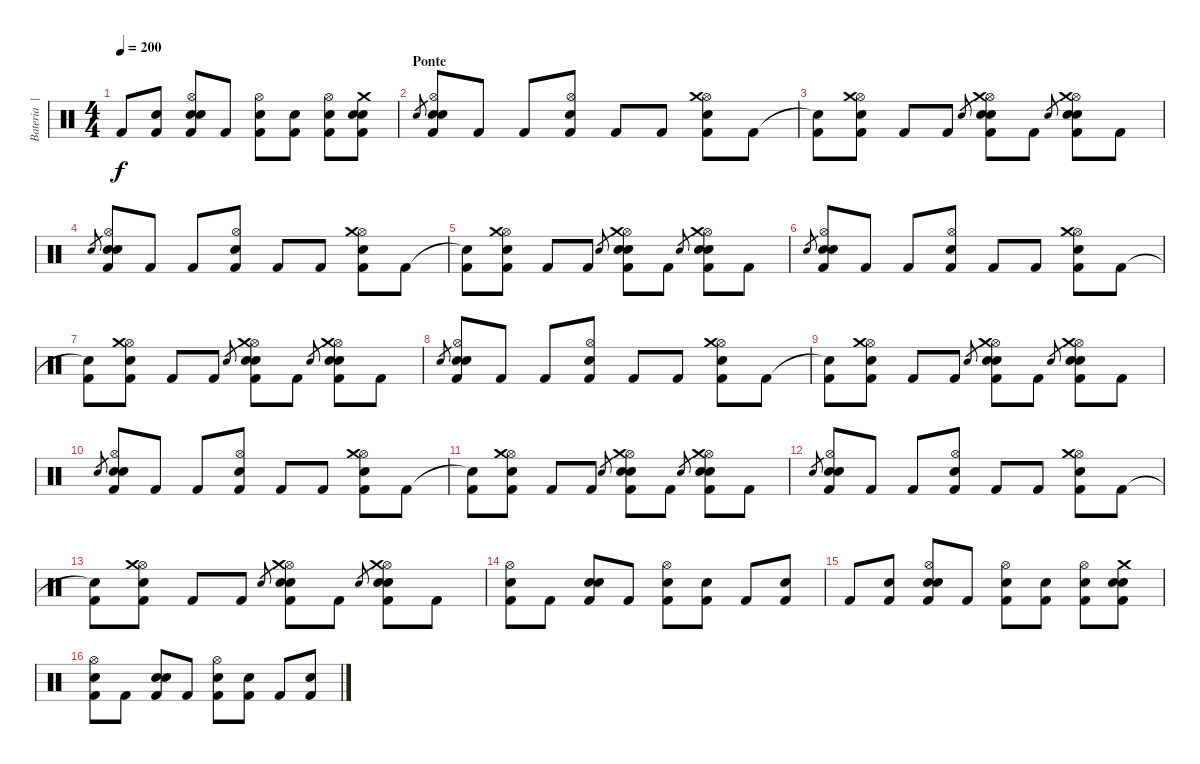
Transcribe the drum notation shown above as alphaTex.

\track ("Bateria  | Nô" "Bateria  |") {instrument percussion}
\staff {score}
\articulation defaults
\ts (4 4)
\tempo 200
\clef neutral
\ks c "Kick (hit) 2".8{dy f}
("Electric Snare (hit)" "Kick (hit) 2").8 ("Hi-Hat (open)" "Electric Snare (hit)" "Snare (hit) 2" "Kick (hit) 2").8 "Kick (hit) 2".8 ("Hi-Hat (open)" "Electric Snare (hit)" "Kick (hit) 2").8 ("Electric Snare (hit)" "Kick (hit) 2").8 ("Hi-Hat (open)" "Electric Snare (hit)" "Kick (hit) 2").8 ("Crash medium (hit)" "Snare (hit) 2" "Electric Snare (hit)" "Kick (hit) 2").8 |
\section ("" "Ponte")
"Electric Snare (hit)".8{gr} ("Hi-Hat (open)" "Snare (hit) 2" "Electric Snare (hit)" "Kick (hit) 2").8 "Kick (hit) 2".8 "Kick (hit) 2".8 ("Hi-Hat (open)" "Snare (hit) 2" "Kick (hit) 2").8 "Kick (hit) 2".8 "Kick (hit) 2".8 ("Hi-Hat (open)" "Crash medium (hit)" "Snare (hit) 2" "Kick (hit) 2").8 "Kick (hit) 2".8 |
("Snare (hit)"{t} "Kick (hit) 2").8 ("Hi-Hat (open)" "Crash medium (hit)" "Snare (hit) 2" "Kick (hit) 2").8 "Kick (hit) 2".8 "Kick (hit) 2".8 "Electric Snare (hit)".8{gr} ("Hi-Hat (open)" "Crash medium (hit)" "Snare (hit) 2" "Electric Snare (hit)" "Kick (hit) 2").8 "Kick (hit) 2".8 "Electric Snare (hit)".8{gr} ("Hi-Hat (open)" "Crash medium (hit)" "Snare (hit) 2" "Electric Snare (hit)" "Kick (hit) 2").8 "Kick (hit) 2".8 |
"Electric Snare (hit)".8{gr} ("Hi-Hat (open)" "Snare (hit) 2" "Electric Snare (hit)" "Kick (hit) 2").8 "Kick (hit) 2".8 "Kick (hit) 2".8 ("Hi-Hat (open)" "Snare (hit) 2" "Kick (hit) 2").8 "Kick (hit) 2".8 "Kick (hit) 2".8 ("Hi-Hat (open)" "Crash medium (hit)" "Snare (hit) 2" "Kick (hit) 2").8 "Kick (hit) 2".8 |
("Snare (hit)"{t} "Kick (hit) 2").8 ("Hi-Hat (open)" "Crash medium (hit)" "Snare (hit) 2" "Kick (hit) 2").8 "Kick (hit) 2".8 "Kick (hit) 2".8 "Electric Snare (hit)".8{gr} ("Hi-Hat (open)" "Crash medium (hit)" "Snare (hit) 2" "Electric Snare (hit)" "Kick (hit) 2").8 "Kick (hit) 2".8 "Electric Snare (hit)".8{gr} ("Hi-Hat (open)" "Crash medium (hit)" "Snare (hit) 2" "Electric Snare (hit)" "Kick (hit) 2").8 "Kick (hit) 2".8 |
"Electric Snare (hit)".8{gr} ("Hi-Hat (open)" "Snare (hit) 2" "Electric Snare (hit)" "Kick (hit) 2").8 "Kick (hit) 2".8 "Kick (hit) 2".8 ("Hi-Hat (open)" "Snare (hit) 2" "Kick (hit) 2").8 "Kick (hit) 2".8 "Kick (hit) 2".8 ("Hi-Hat (open)" "Crash medium (hit)" "Snare (hit) 2" "Kick (hit) 2").8 "Kick (hit) 2".8 |
("Snare (hit)"{t} "Kick (hit) 2").8 ("Hi-Hat (open)" "Crash medium (hit)" "Snare (hit) 2" "Kick (hit) 2").8 "Kick (hit) 2".8 "Kick (hit) 2".8 "Electric Snare (hit)".8{gr} ("Hi-Hat (open)" "Crash medium (hit)" "Snare (hit) 2" "Electric Snare (hit)" "Kick (hit) 2").8 "Kick (hit) 2".8 "Electric Snare (hit)".8{gr} ("Hi-Hat (open)" "Crash medium (hit)" "Snare (hit) 2" "Electric Snare (hit)" "Kick (hit) 2").8 "Kick (hit) 2".8 |
"Electric Snare (hit)".8{gr} ("Hi-Hat (open)" "Snare (hit) 2" "Electric Snare (hit)" "Kick (hit) 2").8 "Kick (hit) 2".8 "Kick (hit) 2".8 ("Hi-Hat (open)" "Snare (hit) 2" "Kick (hit) 2").8 "Kick (hit) 2".8 "Kick (hit) 2".8 ("Hi-Hat (open)" "Crash medium (hit)" "Snare (hit) 2" "Kick (hit) 2").8 "Kick (hit) 2".8 |
("Snare (hit)"{t} "Kick (hit) 2").8 ("Hi-Hat (open)" "Crash medium (hit)" "Snare (hit) 2" "Kick (hit) 2").8 "Kick (hit) 2".8 "Kick (hit) 2".8 "Electric Snare (hit)".8{gr} ("Hi-Hat (open)" "Crash medium (hit)" "Snare (hit) 2" "Electric Snare (hit)" "Kick (hit) 2").8 "Kick (hit) 2".8 "Electric Snare (hit)".8{gr} ("Hi-Hat (open)" "Crash medium (hit)" "Snare (hit) 2" "Electric Snare (hit)" "Kick (hit) 2").8 "Kick (hit) 2".8 |
"Electric Snare (hit)".8{gr} ("Hi-Hat (open)" "Snare (hit) 2" "Electric Snare (hit)" "Kick (hit) 2").8 "Kick (hit) 2".8 "Kick (hit) 2".8 ("Hi-Hat (open)" "Snare (hit) 2" "Kick (hit) 2").8 "Kick (hit) 2".8 "Kick (hit) 2".8 ("Hi-Hat (open)" "Crash medium (hit)" "Snare (hit) 2" "Kick (hit) 2").8 "Kick (hit) 2".8 |
("Snare (hit)"{t} "Kick (hit) 2").8 ("Hi-Hat (open)" "Crash medium (hit)" "Snare (hit) 2" "Kick (hit) 2").8 "Kick (hit) 2".8 "Kick (hit) 2".8 "Electric Snare (hit)".8{gr} ("Hi-Hat (open)" "Crash medium (hit)" "Snare (hit) 2" "Electric Snare (hit)" "Kick (hit) 2").8 "Kick (hit) 2".8 "Electric Snare (hit)".8{gr} ("Hi-Hat (open)" "Crash medium (hit)" "Snare (hit) 2" "Electric Snare (hit)" "Kick (hit) 2").8 "Kick (hit) 2".8 |
"Electric Snare (hit)".8{gr} ("Hi-Hat (open)" "Snare (hit) 2" "Electric Snare (hit)" "Kick (hit) 2").8 "Kick (hit) 2".8 "Kick (hit) 2".8 ("Hi-Hat (open)" "Snare (hit) 2" "Kick (hit) 2").8 "Kick (hit) 2".8 "Kick (hit) 2".8 ("Hi-Hat (open)" "Crash medium (hit)" "Snare (hit) 2" "Kick (hit) 2").8 "Kick (hit) 2".8 |
("Snare (hit)"{t} "Kick (hit) 2").8 ("Hi-Hat (open)" "Crash medium (hit)" "Snare (hit) 2" "Kick (hit) 2").8 "Kick (hit) 2".8 "Kick (hit) 2".8 "Electric Snare (hit)".8{gr} ("Hi-Hat (open)" "Crash medium (hit)" "Snare (hit) 2" "Electric Snare (hit)" "Kick (hit) 2").8 "Kick (hit) 2".8 "Electric Snare (hit)".8{gr} ("Hi-Hat (open)" "Crash medium (hit)" "Snare (hit) 2" "Electric Snare (hit)" "Kick (hit) 2").8 "Kick (hit) 2".8 |
("Hi-Hat (open)" "Electric Snare (hit)" "Kick (hit) 2").8 "Kick (hit) 2".8 ("Snare (hit) 2" "Electric Snare (hit)" "Kick (hit) 2").8 "Kick (hit) 2".8 ("Hi-Hat (open)" "Electric Snare (hit)" "Kick (hit) 2").8 ("Electric Snare (hit)" "Kick (hit) 2").8 "Kick (hit) 2".8 ("Snare (hit) 2" "Kick (hit) 2").8 |
"Kick (hit) 2".8 ("Electric Snare (hit)" "Kick (hit) 2").8 ("Hi-Hat (open)" "Electric Snare (hit)" "Snare (hit) 2" "Kick (hit) 2").8 "Kick (hit) 2".8 ("Hi-Hat (open)" "Electric Snare (hit)" "Kick (hit) 2").8 ("Electric Snare (hit)" "Kick (hit) 2").8 ("Hi-Hat (open)" "Electric Snare (hit)" "Kick (hit) 2").8 ("Crash medium (hit)" "Snare (hit) 2" "Electric Snare (hit)" "Kick (hit) 2").8 |
("Hi-Hat (open)" "Electric Snare (hit)" "Kick (hit) 2").8 "Kick (hit) 2".8 ("Snare (hit) 2" "Electric Snare (hit)" "Kick (hit) 2").8 "Kick (hit) 2".8 ("Hi-Hat (open)" "Electric Snare (hit)" "Kick (hit) 2").8 ("Electric Snare (hit)" "Kick (hit) 2").8 "Kick (hit) 2".8 ("Snare (hit) 2" "Kick (hit) 2").8
